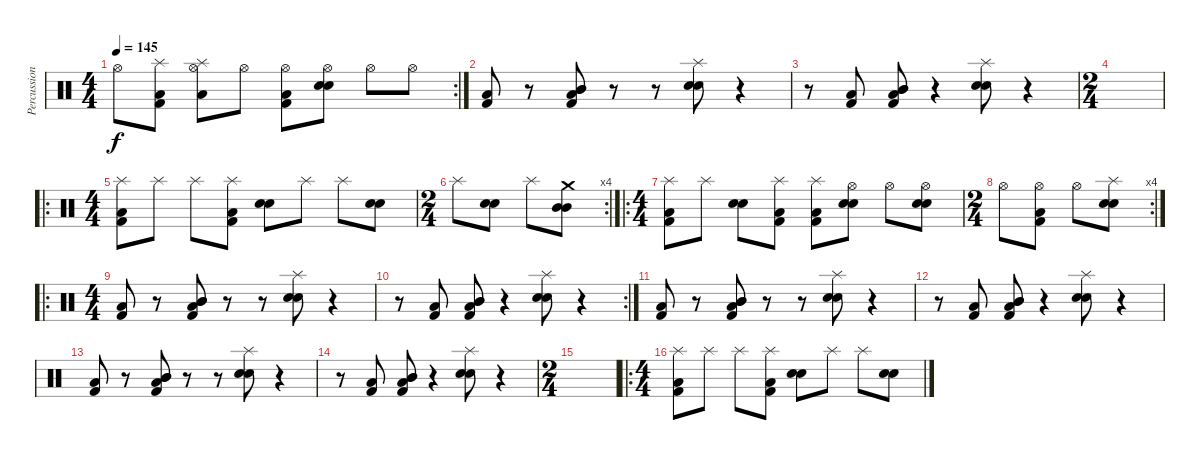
\track ("Percussions" "Percussion") {instrument percussion}
\staff {score}
\articulation defaults
\rc 2
\ts (4 4)
\tempo 145
\clef neutral
\ks c "Hi-Hat (open)".8{dy f}
("Splash (hit)" "Low Floor Tom (hit)" "Kick (hit) 2").8 ("Splash (hit)" "Low Floor Tom (hit)" "Hi-Hat (open)").8 "Hi-Hat (open)".8 ("Hi-Hat (open)" "Low Floor Tom (hit)" "Kick (hit) 2").8 ("Hi-Hat (open)" "Snare (hit) 2" "Electric Snare (hit)").8 "Hi-Hat (open)".8 "Hi-Hat (open)".8 |
("Kick (hit) 2" "Low Floor Tom (hit)").8 r.8 ("Mid Tom (hit)" "Kick (hit) 2" "Low Floor Tom (hit)" "Mid Tom (hit)").8 r.8 r.8 ("Splash (hit)" "Snare (hit) 2" "Electric Snare (hit)").8 r.4 |
r.8 ("Kick (hit) 2" "Low Floor Tom (hit)").8 ("Mid Tom (hit)" "Kick (hit) 2" "Low Floor Tom (hit)" "Mid Tom (hit)").8 r.4 ("Splash (hit)" "Snare (hit) 2" "Electric Snare (hit)").8 r.4 |
\ts (2 4)
|
\ro
\ts (4 4)
("Splash (hit)" "Low Floor Tom (hit)" "Kick (hit) 2").8 "Splash (hit)".8 "Splash (hit)".8 ("Splash (hit)" "Low Floor Tom (hit)" "Kick (hit) 2").8 ("Snare (hit) 2" "Electric Snare (hit)").8 "Splash (hit)".8 "Splash (hit)".8 ("Snare (hit) 2" "Electric Snare (hit)").8 |
\rc 4
\ts (2 4)
"Splash (hit)".8 ("Snare (hit) 2" "Electric Snare (hit)").8 "Splash (hit)".8 ("Crash medium (hit)" "Mid Tom (hit)" "Mid Tom (hit)").8 |
\ro
\ts (4 4)
("Splash (hit)" "Low Floor Tom (hit)" "Kick (hit) 2").8 "Splash (hit)".8 ("Snare (hit) 2" "Electric Snare (hit)").8 ("Splash (hit)" "Low Floor Tom (hit)" "Kick (hit) 2").8 ("Splash (hit)" "Low Floor Tom (hit)" "Kick (hit) 2").8 ("Hi-Hat (open)" "Snare (hit) 2" "Electric Snare (hit)").8 "Hi-Hat (open)".8 ("Hi-Hat (open)" "Snare (hit) 2" "Electric Snare (hit)").8 |
\rc 4
\ts (2 4)
"Hi-Hat (open)".8 ("Hi-Hat (open)" "Low Floor Tom (hit)" "Kick (hit) 2").8 "Hi-Hat (open)".8 ("Splash (hit)" "Snare (hit) 2" "Electric Snare (hit)").8 |
\ro
\ts (4 4)
("Kick (hit) 2" "Low Floor Tom (hit)").8 r.8 ("Mid Tom (hit)" "Kick (hit) 2" "Low Floor Tom (hit)" "Mid Tom (hit)").8 r.8 r.8 ("Splash (hit)" "Snare (hit) 2" "Electric Snare (hit)").8 r.4 |
\rc 2
r.8 ("Kick (hit) 2" "Low Floor Tom (hit)").8 ("Mid Tom (hit)" "Kick (hit) 2" "Low Floor Tom (hit)" "Mid Tom (hit)").8 r.4 ("Splash (hit)" "Snare (hit) 2" "Electric Snare (hit)").8 r.4 |
("Kick (hit) 2" "Low Floor Tom (hit)").8 r.8 ("Mid Tom (hit)" "Kick (hit) 2" "Low Floor Tom (hit)" "Mid Tom (hit)").8 r.8 r.8 ("Splash (hit)" "Snare (hit) 2" "Electric Snare (hit)").8 r.4 |
r.8 ("Kick (hit) 2" "Low Floor Tom (hit)").8 ("Mid Tom (hit)" "Kick (hit) 2" "Low Floor Tom (hit)" "Mid Tom (hit)").8 r.4 ("Splash (hit)" "Snare (hit) 2" "Electric Snare (hit)").8 r.4 |
("Kick (hit) 2" "Low Floor Tom (hit)").8 r.8 ("Mid Tom (hit)" "Kick (hit) 2" "Low Floor Tom (hit)" "Mid Tom (hit)").8 r.8 r.8 ("Splash (hit)" "Snare (hit) 2" "Electric Snare (hit)").8 r.4 |
r.8 ("Kick (hit) 2" "Low Floor Tom (hit)").8 ("Mid Tom (hit)" "Kick (hit) 2" "Low Floor Tom (hit)" "Mid Tom (hit)").8 r.4 ("Splash (hit)" "Snare (hit) 2" "Electric Snare (hit)").8 r.4 |
\ts (2 4)
|
\ro
\ts (4 4)
("Splash (hit)" "Low Floor Tom (hit)" "Kick (hit) 2").8 "Splash (hit)".8 "Splash (hit)".8 ("Splash (hit)" "Low Floor Tom (hit)" "Kick (hit) 2").8 ("Snare (hit) 2" "Electric Snare (hit)").8 "Splash (hit)".8 "Splash (hit)".8 ("Snare (hit) 2" "Electric Snare (hit)").8
